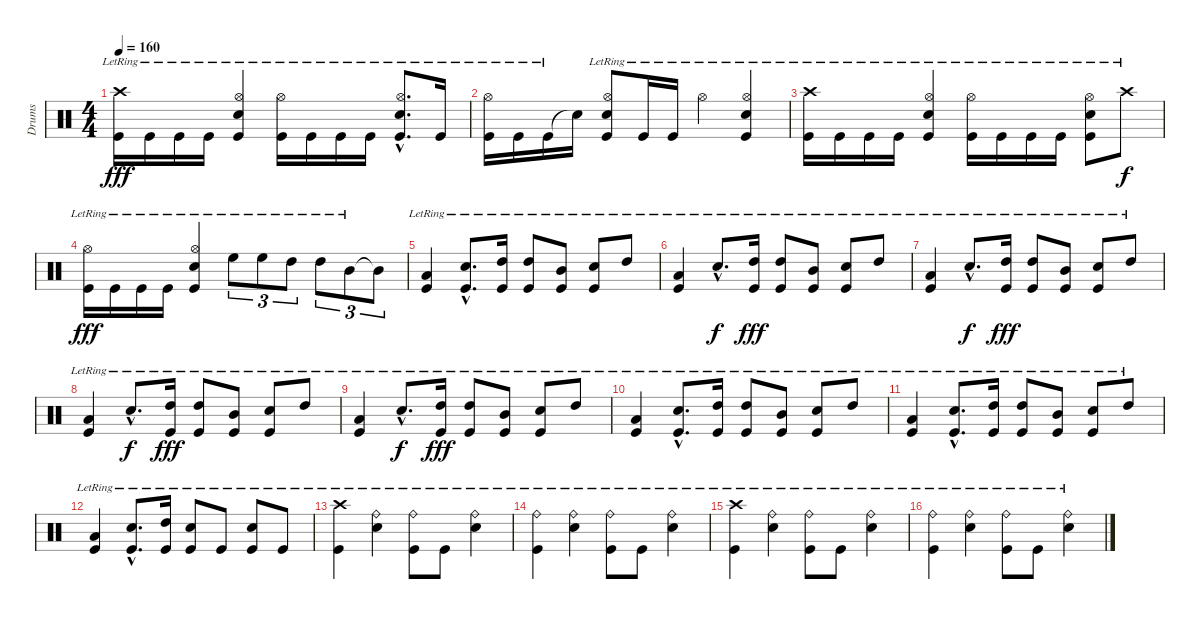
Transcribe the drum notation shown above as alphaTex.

\track ("Drums" "Drums") {instrument percussion}
\staff {score}
\articulation defaults
\ts (4 4)
\tempo 160
\clef neutral
\ks c
("Crash high (hit)"{lr} "Kick (hit)"{lr}).16{dy fff} "Kick (hit)"{lr}.16 "Kick (hit)"{lr}.16 "Kick (hit)"{lr}.16 ("Hi-Hat (open)"{lr} "Snare (hit) 2"{lr} "Kick (hit)"{lr}).4 ("Hi-Hat (open)"{lr} "Kick (hit)"{lr}).16 "Kick (hit)"{lr}.16 "Kick (hit)"{lr}.16 "Kick (hit)"{lr}.16 ("Hi-Hat (open)"{hac lr} "Snare (hit) 2"{hac lr} "Kick (hit)"{hac lr}).8{d} "Kick (hit)"{lr}.16 |
("Hi-Hat (open)"{lr} "Kick (hit)"{lr}).16 "Kick (hit)"{lr}.16 "Kick (hit)"{lr}.16 "Snare (hit)"{t}.16 ("Hi-Hat (open)"{lr} "Snare (hit) 2"{lr} "Kick (hit)"{lr}).8 "Kick (hit)"{lr}.16 "Kick (hit)"{lr}.16 "Hi-Hat (open)"{lr}.4 ("Hi-Hat (open)"{lr} "Snare (hit) 2"{lr} "Kick (hit)"{lr}).4 |
("Crash high (hit)"{lr} "Kick (hit)"{lr}).16 "Kick (hit)"{lr}.16 "Kick (hit)"{lr}.16 "Kick (hit)"{lr}.16 ("Hi-Hat (open)"{lr} "Snare (hit) 2"{lr} "Kick (hit)"{lr}).4 ("Hi-Hat (open)"{lr} "Kick (hit)"{lr}).16 "Kick (hit)"{lr}.16 "Kick (hit)"{lr}.16 "Kick (hit)"{lr}.16 ("Hi-Hat (open)"{lr} "Snare (hit) 2"{lr} "Kick (hit)"{lr}).8 "Crash high (hit)"{lr}.8{dy f} |
("Hi-Hat (open)"{lr} "Kick (hit)"{lr}).16{dy fff} "Kick (hit)"{lr}.16 "Kick (hit)"{lr}.16 "Kick (hit)"{lr}.16 ("Hi-Hat (open)"{lr} "Snare (hit) 2"{lr} "Kick (hit)"{lr}).4 "High Floor Tom (hit)"{lr}.8{tu (3 2)} "High Floor Tom (hit)"{lr}.8{tu (3 2)} "High Tom (hit)"{lr}.8{tu (3 2)} "High Tom (hit)"{lr}.8{tu (3 2)} "Mid Tom (hit)"{lr}.8{tu (3 2)} "Mid Tom (hit)"{t}.8{tu (3 2)} |
("Low Floor Tom (hit)"{lr} "Kick (hit)"{lr}).4 ("Snare (hit) 2"{hac lr} "Kick (hit)"{hac lr}).8{d} ("High Tom (hit)"{lr} "Kick (hit)"{lr}).16 ("High Tom (hit)"{lr} "Kick (hit)"{lr}).8 ("Mid Tom (hit)"{lr} "Kick (hit)"{lr}).8 ("Snare (hit) 2"{lr} "Kick (hit)"{lr}).8 "High Tom (hit)"{lr}.8 |
("Low Floor Tom (hit)"{lr} "Kick (hit)"{lr}).4 "Snare (hit) 2"{hac lr}.8{d dy f} ("High Tom (hit)"{lr} "Kick (hit)"{lr}).16{dy fff} ("High Tom (hit)"{lr} "Kick (hit)"{lr}).8 ("Mid Tom (hit)"{lr} "Kick (hit)"{lr}).8 ("Snare (hit) 2"{lr} "Kick (hit)"{lr}).8 "High Tom (hit)"{lr}.8 |
("Low Floor Tom (hit)"{lr} "Kick (hit)"{lr}).4 "Snare (hit) 2"{hac lr}.8{d dy f} ("High Tom (hit)"{lr} "Kick (hit)"{lr}).16{dy fff} ("High Tom (hit)"{lr} "Kick (hit)"{lr}).8 ("Mid Tom (hit)"{lr} "Kick (hit)"{lr}).8 ("Snare (hit) 2"{lr} "Kick (hit)"{lr}).8 "High Tom (hit)"{lr}.8 |
("Low Floor Tom (hit)"{lr} "Kick (hit)"{lr}).4 "Snare (hit) 2"{hac lr}.8{d dy f} ("High Tom (hit)"{lr} "Kick (hit)"{lr}).16{dy fff} ("High Tom (hit)"{lr} "Kick (hit)"{lr}).8 ("Mid Tom (hit)"{lr} "Kick (hit)"{lr}).8 ("Snare (hit) 2"{lr} "Kick (hit)"{lr}).8 "High Tom (hit)"{lr}.8 |
("Low Floor Tom (hit)"{lr} "Kick (hit)"{lr}).4 "Snare (hit) 2"{hac lr}.8{d dy f} ("High Tom (hit)"{lr} "Kick (hit)"{lr}).16{dy fff} ("High Tom (hit)"{lr} "Kick (hit)"{lr}).8 ("Mid Tom (hit)"{lr} "Kick (hit)"{lr}).8 ("Snare (hit) 2"{lr} "Kick (hit)"{lr}).8 "High Tom (hit)"{lr}.8 |
("Low Floor Tom (hit)"{lr} "Kick (hit)"{lr}).4 ("Snare (hit) 2"{hac lr} "Kick (hit)"{hac lr}).8{d} ("High Tom (hit)"{lr} "Kick (hit)"{lr}).16 ("High Tom (hit)"{lr} "Kick (hit)"{lr}).8 ("Mid Tom (hit)"{lr} "Kick (hit)"{lr}).8 ("Snare (hit) 2"{lr} "Kick (hit)"{lr}).8 "High Tom (hit)"{lr}.8 |
("Low Floor Tom (hit)"{lr} "Kick (hit)"{lr}).4 ("Snare (hit) 2"{hac lr} "Kick (hit)"{hac lr}).8{d} ("High Tom (hit)"{lr} "Kick (hit)"{lr}).16 ("High Tom (hit)"{lr} "Kick (hit)"{lr}).8 ("Mid Tom (hit)"{lr} "Kick (hit)"{lr}).8 ("Snare (hit) 2"{lr} "Kick (hit)"{lr}).8 "High Tom (hit)"{lr}.8 |
("Low Floor Tom (hit)"{lr} "Kick (hit)"{lr}).4 ("Snare (hit) 2"{hac lr} "Kick (hit)"{hac lr}).8{d} ("High Tom (hit)"{lr} "Kick (hit)"{lr}).16 ("Snare (hit) 2"{lr} "Kick (hit)"{lr}).8 "Kick (hit)"{lr}.8 ("Snare (hit) 2"{lr} "Kick (hit)"{lr}).8 "Kick (hit)"{lr}.8 |
("Crash high (hit)"{lr} "Kick (hit)"{lr}).4 ("Ride (bell)"{lr} "Snare (hit) 2"{lr}).4 ("Ride (bell)"{lr} "Kick (hit)"{lr}).8 "Kick (hit)"{lr}.8 ("Ride (bell)"{lr} "Snare (hit) 2"{lr}).4 |
("Ride (bell)"{lr} "Kick (hit)"{lr}).4 ("Ride (bell)"{lr} "Snare (hit) 2"{lr}).4 ("Ride (bell)"{lr} "Kick (hit)"{lr}).8 "Kick (hit)"{lr}.8 ("Ride (bell)"{lr} "Snare (hit) 2"{lr}).4 |
("Crash high (hit)"{lr} "Kick (hit)"{lr}).4 ("Ride (bell)"{lr} "Snare (hit) 2"{lr}).4 ("Ride (bell)"{lr} "Kick (hit)"{lr}).8 "Kick (hit)"{lr}.8 ("Ride (bell)"{lr} "Snare (hit) 2"{lr}).4 |
("Ride (bell)"{lr} "Kick (hit)"{lr}).4 ("Ride (bell)"{lr} "Snare (hit) 2"{lr}).4 ("Ride (bell)"{lr} "Kick (hit)"{lr}).8 "Kick (hit)"{lr}.8 ("Ride (bell)"{lr} "Snare (hit) 2"{lr}).4
